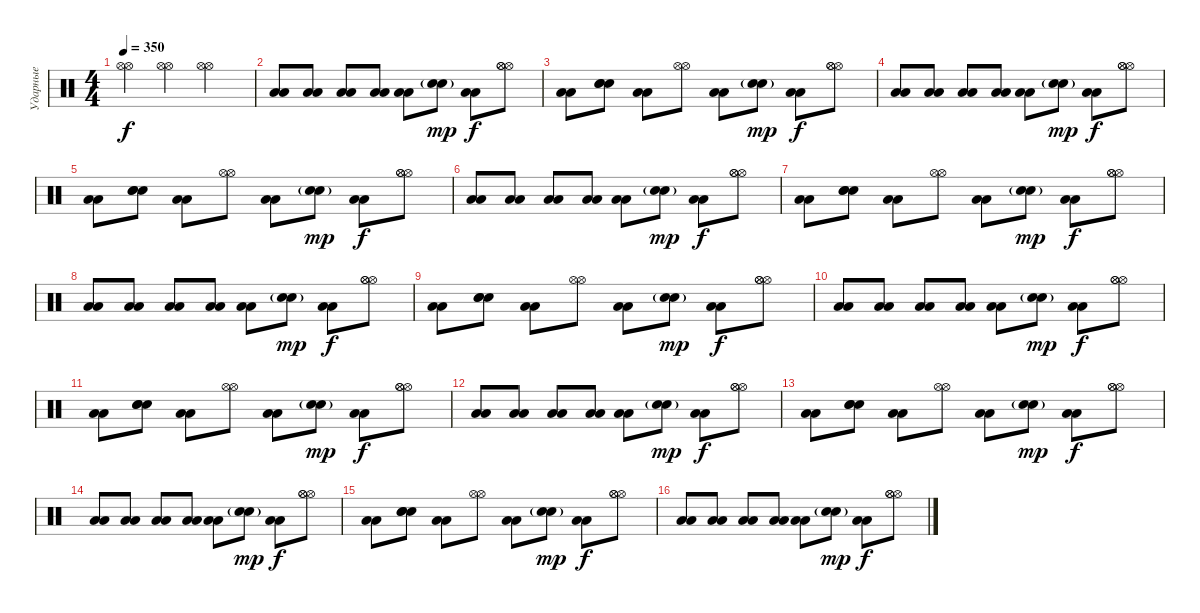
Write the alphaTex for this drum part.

\track ("Ударные" "Ударные") {instrument percussion}
\staff {score}
\articulation defaults
\ts (4 4)
\tempo 350
\clef neutral
\ks c
("Hi-Hat (open)" "Hi-Hat (open)").4{dy f} ("Hi-Hat (open)" "Hi-Hat (open)").4 ("Hi-Hat (open)" "Hi-Hat (open)").2 |
("Low Floor Tom (hit)" "Low Floor Tom (hit)").8 ("Low Floor Tom (hit)" "Low Floor Tom (hit)").8 ("Low Floor Tom (hit)" "Low Floor Tom (hit)").8 ("Low Floor Tom (hit)" "Low Floor Tom (hit)").8 ("Low Floor Tom (hit)" "Low Floor Tom (hit)").8 ("Electric Snare (hit)"{g} "Electric Snare (hit)"{g}).8{dy mp} ("Low Floor Tom (hit)" "Low Floor Tom (hit)").8{dy f} ("Hi-Hat (open)" "Hi-Hat (open)" "Hi-Hat (open)").8 |
("Low Floor Tom (hit)" "Low Floor Tom (hit)").8 ("Electric Snare (hit)" "Electric Snare (hit)" "Electric Snare (hit)").8 ("Low Floor Tom (hit)" "Low Floor Tom (hit)").8 ("Hi-Hat (open)" "Hi-Hat (open)").8 ("Low Floor Tom (hit)" "Low Floor Tom (hit)").8 ("Electric Snare (hit)"{g} "Electric Snare (hit)"{g}).8{dy mp} ("Low Floor Tom (hit)" "Low Floor Tom (hit)").8{dy f} ("Hi-Hat (open)" "Hi-Hat (open)" "Hi-Hat (open)").8 |
("Low Floor Tom (hit)" "Low Floor Tom (hit)").8 ("Low Floor Tom (hit)" "Low Floor Tom (hit)").8 ("Low Floor Tom (hit)" "Low Floor Tom (hit)").8 ("Low Floor Tom (hit)" "Low Floor Tom (hit)").8 ("Low Floor Tom (hit)" "Low Floor Tom (hit)").8 ("Electric Snare (hit)"{g} "Electric Snare (hit)"{g}).8{dy mp} ("Low Floor Tom (hit)" "Low Floor Tom (hit)").8{dy f} ("Hi-Hat (open)" "Hi-Hat (open)" "Hi-Hat (open)").8 |
("Low Floor Tom (hit)" "Low Floor Tom (hit)").8 ("Electric Snare (hit)" "Electric Snare (hit)" "Electric Snare (hit)").8 ("Low Floor Tom (hit)" "Low Floor Tom (hit)").8 ("Hi-Hat (open)" "Hi-Hat (open)").8 ("Low Floor Tom (hit)" "Low Floor Tom (hit)").8 ("Electric Snare (hit)"{g} "Electric Snare (hit)"{g}).8{dy mp} ("Low Floor Tom (hit)" "Low Floor Tom (hit)").8{dy f} ("Hi-Hat (open)" "Hi-Hat (open)" "Hi-Hat (open)").8 |
("Low Floor Tom (hit)" "Low Floor Tom (hit)").8 ("Low Floor Tom (hit)" "Low Floor Tom (hit)").8 ("Low Floor Tom (hit)" "Low Floor Tom (hit)").8 ("Low Floor Tom (hit)" "Low Floor Tom (hit)").8 ("Low Floor Tom (hit)" "Low Floor Tom (hit)").8 ("Electric Snare (hit)"{g} "Electric Snare (hit)"{g}).8{dy mp} ("Low Floor Tom (hit)" "Low Floor Tom (hit)").8{dy f} ("Hi-Hat (open)" "Hi-Hat (open)" "Hi-Hat (open)").8 |
("Low Floor Tom (hit)" "Low Floor Tom (hit)").8 ("Electric Snare (hit)" "Electric Snare (hit)" "Electric Snare (hit)").8 ("Low Floor Tom (hit)" "Low Floor Tom (hit)").8 ("Hi-Hat (open)" "Hi-Hat (open)").8 ("Low Floor Tom (hit)" "Low Floor Tom (hit)").8 ("Electric Snare (hit)"{g} "Electric Snare (hit)"{g}).8{dy mp} ("Low Floor Tom (hit)" "Low Floor Tom (hit)").8{dy f} ("Hi-Hat (open)" "Hi-Hat (open)" "Hi-Hat (open)").8 |
("Low Floor Tom (hit)" "Low Floor Tom (hit)").8 ("Low Floor Tom (hit)" "Low Floor Tom (hit)").8 ("Low Floor Tom (hit)" "Low Floor Tom (hit)").8 ("Low Floor Tom (hit)" "Low Floor Tom (hit)").8 ("Low Floor Tom (hit)" "Low Floor Tom (hit)").8 ("Electric Snare (hit)"{g} "Electric Snare (hit)"{g}).8{dy mp} ("Low Floor Tom (hit)" "Low Floor Tom (hit)").8{dy f} ("Hi-Hat (open)" "Hi-Hat (open)" "Hi-Hat (open)").8 |
("Low Floor Tom (hit)" "Low Floor Tom (hit)").8 ("Electric Snare (hit)" "Electric Snare (hit)" "Electric Snare (hit)").8 ("Low Floor Tom (hit)" "Low Floor Tom (hit)").8 ("Hi-Hat (open)" "Hi-Hat (open)").8 ("Low Floor Tom (hit)" "Low Floor Tom (hit)").8 ("Electric Snare (hit)"{g} "Electric Snare (hit)"{g}).8{dy mp} ("Low Floor Tom (hit)" "Low Floor Tom (hit)").8{dy f} ("Hi-Hat (open)" "Hi-Hat (open)" "Hi-Hat (open)").8 |
("Low Floor Tom (hit)" "Low Floor Tom (hit)").8 ("Low Floor Tom (hit)" "Low Floor Tom (hit)").8 ("Low Floor Tom (hit)" "Low Floor Tom (hit)").8 ("Low Floor Tom (hit)" "Low Floor Tom (hit)").8 ("Low Floor Tom (hit)" "Low Floor Tom (hit)").8 ("Electric Snare (hit)"{g} "Electric Snare (hit)"{g}).8{dy mp} ("Low Floor Tom (hit)" "Low Floor Tom (hit)").8{dy f} ("Hi-Hat (open)" "Hi-Hat (open)" "Hi-Hat (open)").8 |
("Low Floor Tom (hit)" "Low Floor Tom (hit)").8 ("Electric Snare (hit)" "Electric Snare (hit)" "Electric Snare (hit)").8 ("Low Floor Tom (hit)" "Low Floor Tom (hit)").8 ("Hi-Hat (open)" "Hi-Hat (open)").8 ("Low Floor Tom (hit)" "Low Floor Tom (hit)").8 ("Electric Snare (hit)"{g} "Electric Snare (hit)"{g}).8{dy mp} ("Low Floor Tom (hit)" "Low Floor Tom (hit)").8{dy f} ("Hi-Hat (open)" "Hi-Hat (open)" "Hi-Hat (open)").8 |
("Low Floor Tom (hit)" "Low Floor Tom (hit)").8 ("Low Floor Tom (hit)" "Low Floor Tom (hit)").8 ("Low Floor Tom (hit)" "Low Floor Tom (hit)").8 ("Low Floor Tom (hit)" "Low Floor Tom (hit)").8 ("Low Floor Tom (hit)" "Low Floor Tom (hit)").8 ("Electric Snare (hit)"{g} "Electric Snare (hit)"{g}).8{dy mp} ("Low Floor Tom (hit)" "Low Floor Tom (hit)").8{dy f} ("Hi-Hat (open)" "Hi-Hat (open)" "Hi-Hat (open)").8 |
("Low Floor Tom (hit)" "Low Floor Tom (hit)").8 ("Electric Snare (hit)" "Electric Snare (hit)" "Electric Snare (hit)").8 ("Low Floor Tom (hit)" "Low Floor Tom (hit)").8 ("Hi-Hat (open)" "Hi-Hat (open)").8 ("Low Floor Tom (hit)" "Low Floor Tom (hit)").8 ("Electric Snare (hit)"{g} "Electric Snare (hit)"{g}).8{dy mp} ("Low Floor Tom (hit)" "Low Floor Tom (hit)").8{dy f} ("Hi-Hat (open)" "Hi-Hat (open)" "Hi-Hat (open)").8 |
("Low Floor Tom (hit)" "Low Floor Tom (hit)").8 ("Low Floor Tom (hit)" "Low Floor Tom (hit)").8 ("Low Floor Tom (hit)" "Low Floor Tom (hit)").8 ("Low Floor Tom (hit)" "Low Floor Tom (hit)").8 ("Low Floor Tom (hit)" "Low Floor Tom (hit)").8 ("Electric Snare (hit)"{g} "Electric Snare (hit)"{g}).8{dy mp} ("Low Floor Tom (hit)" "Low Floor Tom (hit)").8{dy f} ("Hi-Hat (open)" "Hi-Hat (open)" "Hi-Hat (open)").8 |
("Low Floor Tom (hit)" "Low Floor Tom (hit)").8 ("Electric Snare (hit)" "Electric Snare (hit)" "Electric Snare (hit)").8 ("Low Floor Tom (hit)" "Low Floor Tom (hit)").8 ("Hi-Hat (open)" "Hi-Hat (open)").8 ("Low Floor Tom (hit)" "Low Floor Tom (hit)").8 ("Electric Snare (hit)"{g} "Electric Snare (hit)"{g}).8{dy mp} ("Low Floor Tom (hit)" "Low Floor Tom (hit)").8{dy f} ("Hi-Hat (open)" "Hi-Hat (open)" "Hi-Hat (open)").8 |
("Low Floor Tom (hit)" "Low Floor Tom (hit)").8 ("Low Floor Tom (hit)" "Low Floor Tom (hit)").8 ("Low Floor Tom (hit)" "Low Floor Tom (hit)").8 ("Low Floor Tom (hit)" "Low Floor Tom (hit)").8 ("Low Floor Tom (hit)" "Low Floor Tom (hit)").8 ("Electric Snare (hit)"{g} "Electric Snare (hit)"{g}).8{dy mp} ("Low Floor Tom (hit)" "Low Floor Tom (hit)").8{dy f} ("Hi-Hat (open)" "Hi-Hat (open)" "Hi-Hat (open)").8
